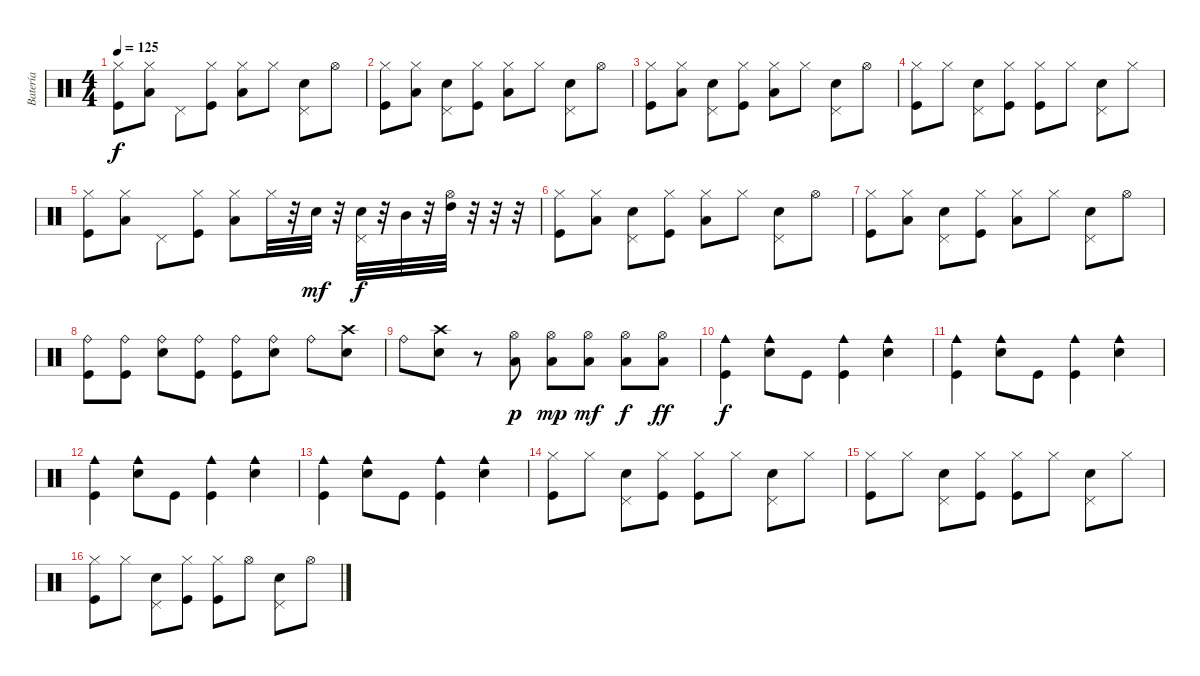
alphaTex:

\track ("Batería" "Batería") {instrument percussion}
\staff {score}
\articulation defaults
\ts (4 4)
\tempo 125
\clef neutral
\ks c
("Hi-Hat (closed)" "Kick (hit)").8{dy f} ("Hi-Hat (closed)" "Low Tom (hit)").8 "Pedal Hi-Hat (hit)".8 ("Hi-Hat (closed)" "Kick (hit)").8 ("Hi-Hat (closed)" "Low Tom (hit)").8 "Hi-Hat (closed)".8 ("Pedal Hi-Hat (hit)" "Snare (hit) 2").8 "Hi-Hat (open)".8 |
("Hi-Hat (closed)" "Kick (hit)").8 ("Hi-Hat (closed)" "Low Tom (hit)").8 ("Pedal Hi-Hat (hit)" "Snare (hit) 2").8 ("Hi-Hat (closed)" "Kick (hit)").8 ("Hi-Hat (closed)" "Low Tom (hit)").8 "Hi-Hat (closed)".8 ("Pedal Hi-Hat (hit)" "Snare (hit) 2").8 "Hi-Hat (open)".8 |
("Hi-Hat (closed)" "Kick (hit)").8 ("Hi-Hat (closed)" "Low Tom (hit)").8 ("Pedal Hi-Hat (hit)" "Snare (hit) 2").8 ("Hi-Hat (closed)" "Kick (hit)").8 ("Hi-Hat (closed)" "Low Tom (hit)").8 "Hi-Hat (closed)".8 ("Pedal Hi-Hat (hit)" "Snare (hit) 2").8 "Hi-Hat (open)".8 |
("Hi-Hat (closed)" "Kick (hit)").8 "Hi-Hat (closed)".8 ("Pedal Hi-Hat (hit)" "Snare (hit) 2").8 ("Hi-Hat (closed)" "Kick (hit)").8 ("Hi-Hat (closed)" "Kick (hit)").8 "Hi-Hat (closed)".8 ("Pedal Hi-Hat (hit)" "Snare (hit) 2").8 "Hi-Hat (closed)".8 |
("Hi-Hat (closed)" "Kick (hit)").8 ("Hi-Hat (closed)" "Low Tom (hit)").8 "Pedal Hi-Hat (hit)".8 ("Hi-Hat (closed)" "Kick (hit)").8 ("Hi-Hat (closed)" "Low Tom (hit)").8 "Hi-Hat (closed)".32 r.32 "Snare (hit) 2".32{dy mf} r.32 ("Pedal Hi-Hat (hit)" "Snare (hit) 2").32{dy f} r.32 "Mid Tom (hit)".32 r.32 ("Hi-Hat (open)" "High Tom (hit)").32 r.32 r.32 r.32 |
("Hi-Hat (closed)" "Kick (hit)").8 ("Hi-Hat (closed)" "Low Tom (hit)").8 ("Pedal Hi-Hat (hit)" "Snare (hit) 2").8 ("Hi-Hat (closed)" "Kick (hit)").8 ("Hi-Hat (closed)" "Low Tom (hit)").8 "Hi-Hat (closed)".8 ("Pedal Hi-Hat (hit)" "Snare (hit) 2").8 "Hi-Hat (open)".8 |
("Hi-Hat (closed)" "Kick (hit)").8 ("Hi-Hat (closed)" "Low Tom (hit)").8 ("Pedal Hi-Hat (hit)" "Snare (hit) 2").8 ("Hi-Hat (closed)" "Kick (hit)").8 ("Hi-Hat (closed)" "Low Tom (hit)").8 "Hi-Hat (closed)".8 ("Pedal Hi-Hat (hit)" "Snare (hit) 2").8 "Hi-Hat (open)".8 |
("Ride (bell)" "Kick (hit)").8 ("Ride (bell)" "Kick (hit)").8 ("Ride (bell)" "Snare (hit) 2").8 ("Ride (bell)" "Kick (hit)").8 ("Ride (bell)" "Kick (hit)").8 ("Ride (bell)" "Snare (hit) 2").8 "Ride (bell)".8 ("Crash high (hit)" "Snare (hit) 2").8 |
"Ride (bell)".8 ("Crash high (hit)" "Snare (hit) 2").8 r.8 ("Hi-Hat (open)" "Low Tom (hit)").8{dy p} ("Hi-Hat (open)" "Low Tom (hit)").8{dy mp} ("Hi-Hat (open)" "Low Tom (hit)").8{dy mf} ("Hi-Hat (open)" "Low Tom (hit)").8{dy f} ("Hi-Hat (open)" "Low Tom (hit)").8{dy ff} |
("Cowbell medium (hit)" "Kick (hit)").4{dy f} ("Cowbell medium (hit)" "Snare (hit) 2").8 "Kick (hit)".8 ("Cowbell medium (hit)" "Kick (hit)").4 ("Cowbell medium (hit)" "Snare (hit) 2").4 |
("Cowbell medium (hit)" "Kick (hit)").4 ("Cowbell medium (hit)" "Snare (hit) 2").8 "Kick (hit)".8 ("Cowbell medium (hit)" "Kick (hit)").4 ("Cowbell medium (hit)" "Snare (hit) 2").4 |
("Cowbell medium (hit)" "Kick (hit)").4 ("Cowbell medium (hit)" "Snare (hit) 2").8 "Kick (hit)".8 ("Cowbell medium (hit)" "Kick (hit)").4 ("Cowbell medium (hit)" "Snare (hit) 2").4 |
("Cowbell medium (hit)" "Kick (hit)").4 ("Cowbell medium (hit)" "Snare (hit) 2").8 "Kick (hit)".8 ("Cowbell medium (hit)" "Kick (hit)").4 ("Cowbell medium (hit)" "Snare (hit) 2").4 |
("Hi-Hat (closed)" "Kick (hit)").8 "Hi-Hat (closed)".8 ("Pedal Hi-Hat (hit)" "Snare (hit) 2").8 ("Hi-Hat (closed)" "Kick (hit)").8 ("Hi-Hat (closed)" "Kick (hit)").8 "Hi-Hat (closed)".8 ("Pedal Hi-Hat (hit)" "Snare (hit) 2").8 "Hi-Hat (closed)".8 |
("Hi-Hat (closed)" "Kick (hit)").8 "Hi-Hat (closed)".8 ("Pedal Hi-Hat (hit)" "Snare (hit) 2").8 ("Hi-Hat (closed)" "Kick (hit)").8 ("Hi-Hat (closed)" "Kick (hit)").8 "Hi-Hat (closed)".8 ("Pedal Hi-Hat (hit)" "Snare (hit) 2").8 "Hi-Hat (closed)".8 |
("Hi-Hat (closed)" "Kick (hit)").8 "Hi-Hat (closed)".8 ("Pedal Hi-Hat (hit)" "Snare (hit) 2").8 ("Hi-Hat (closed)" "Kick (hit)").8 ("Hi-Hat (closed)" "Kick (hit)").8 "Hi-Hat (open)".8 ("Pedal Hi-Hat (hit)" "Snare (hit) 2").8 "Hi-Hat (open)".8
